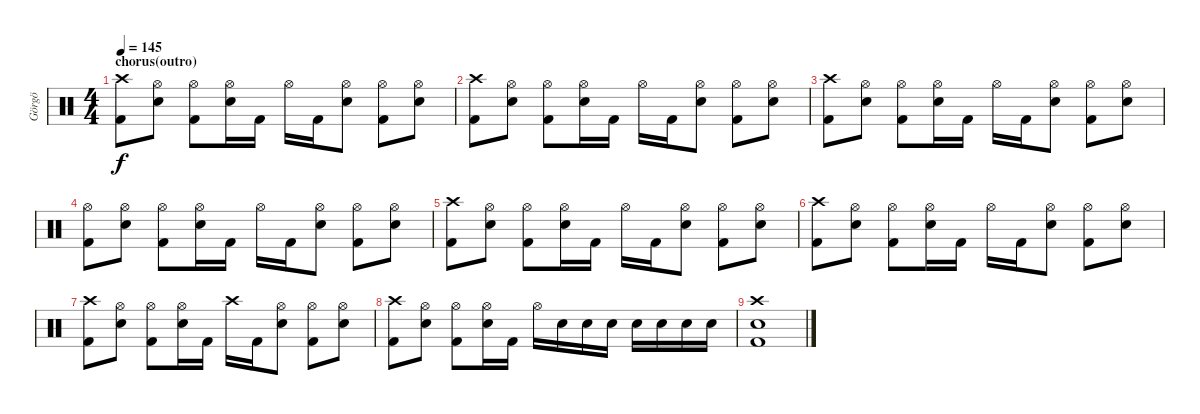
\track ("Görgö" "Görgö") {instrument percussion}
\staff {score}
\articulation defaults
\ts (4 4)
\section ("" "chorus(outro)")
\tempo 145
\clef neutral
\ks c
("Crash high (hit)" "Kick (hit) 2").8{dy f} ("Hi-Hat (open)" "Snare (hit) 2").8 ("Hi-Hat (open)" "Kick (hit) 2").8 ("Hi-Hat (open)" "Snare (hit) 2").16 "Kick (hit) 2".16 "Hi-Hat (open)".16 "Kick (hit) 2".16 ("Hi-Hat (open)" "Snare (hit) 2").8 ("Hi-Hat (open)" "Kick (hit) 2").8 ("Hi-Hat (open)" "Snare (hit) 2").8 |
("Crash high (hit)" "Kick (hit) 2").8 ("Hi-Hat (open)" "Snare (hit) 2").8 ("Hi-Hat (open)" "Kick (hit) 2").8 ("Hi-Hat (open)" "Snare (hit) 2").16 "Kick (hit) 2".16 "Hi-Hat (open)".16 "Kick (hit) 2".16 ("Hi-Hat (open)" "Snare (hit) 2").8 ("Hi-Hat (open)" "Kick (hit) 2").8 ("Hi-Hat (open)" "Snare (hit) 2").8 |
("Crash high (hit)" "Kick (hit) 2").8 ("Hi-Hat (open)" "Snare (hit) 2").8 ("Hi-Hat (open)" "Kick (hit) 2").8 ("Hi-Hat (open)" "Snare (hit) 2").16 "Kick (hit) 2".16 "Hi-Hat (open)".16 "Kick (hit) 2".16 ("Hi-Hat (open)" "Snare (hit) 2").8 ("Hi-Hat (open)" "Kick (hit) 2").8 ("Hi-Hat (open)" "Snare (hit) 2").8 |
("Hi-Hat (open)" "Kick (hit) 2").8 ("Hi-Hat (open)" "Snare (hit) 2").8 ("Hi-Hat (open)" "Kick (hit) 2").8 ("Hi-Hat (open)" "Snare (hit) 2").16 "Kick (hit) 2".16 "Hi-Hat (open)".16 "Kick (hit) 2".16 ("Hi-Hat (open)" "Snare (hit) 2").8 ("Hi-Hat (open)" "Kick (hit) 2").8 ("Hi-Hat (open)" "Snare (hit) 2").8 |
("Crash high (hit)" "Kick (hit) 2").8 ("Hi-Hat (open)" "Snare (hit) 2").8 ("Hi-Hat (open)" "Kick (hit) 2").8 ("Hi-Hat (open)" "Snare (hit) 2").16 "Kick (hit) 2".16 "Hi-Hat (open)".16 "Kick (hit) 2".16 ("Hi-Hat (open)" "Snare (hit) 2").8 ("Hi-Hat (open)" "Kick (hit) 2").8 ("Hi-Hat (open)" "Snare (hit) 2").8 |
("Crash high (hit)" "Kick (hit) 2").8 ("Hi-Hat (open)" "Snare (hit) 2").8 ("Hi-Hat (open)" "Kick (hit) 2").8 ("Hi-Hat (open)" "Snare (hit) 2").16 "Kick (hit) 2".16 "Hi-Hat (open)".16 "Kick (hit) 2".16 ("Hi-Hat (open)" "Snare (hit) 2").8 ("Hi-Hat (open)" "Kick (hit) 2").8 ("Hi-Hat (open)" "Snare (hit) 2").8 |
("Crash high (hit)" "Kick (hit) 2").8 ("Hi-Hat (open)" "Snare (hit) 2").8 ("Hi-Hat (open)" "Kick (hit) 2").8 ("Hi-Hat (open)" "Snare (hit) 2").16 "Kick (hit) 2".16 "Crash high (hit)".16 "Kick (hit) 2".16 ("Hi-Hat (open)" "Snare (hit) 2").8 ("Hi-Hat (open)" "Kick (hit) 2").8 ("Hi-Hat (open)" "Snare (hit) 2").8 |
("Crash high (hit)" "Kick (hit) 2").8 ("Hi-Hat (open)" "Snare (hit) 2").8 ("Hi-Hat (open)" "Kick (hit) 2").8 ("Hi-Hat (open)" "Snare (hit) 2").16 "Kick (hit) 2".16 "Hi-Hat (open)".16 "Snare (hit) 2".16 "Snare (hit) 2".16 "Snare (hit) 2".16 "Snare (hit) 2".16 "Snare (hit) 2".16 "Snare (hit) 2".16 "Snare (hit) 2".16 |
("Crash high (hit)" "Snare (hit) 2" "Kick (hit) 2").1{volume 0}
